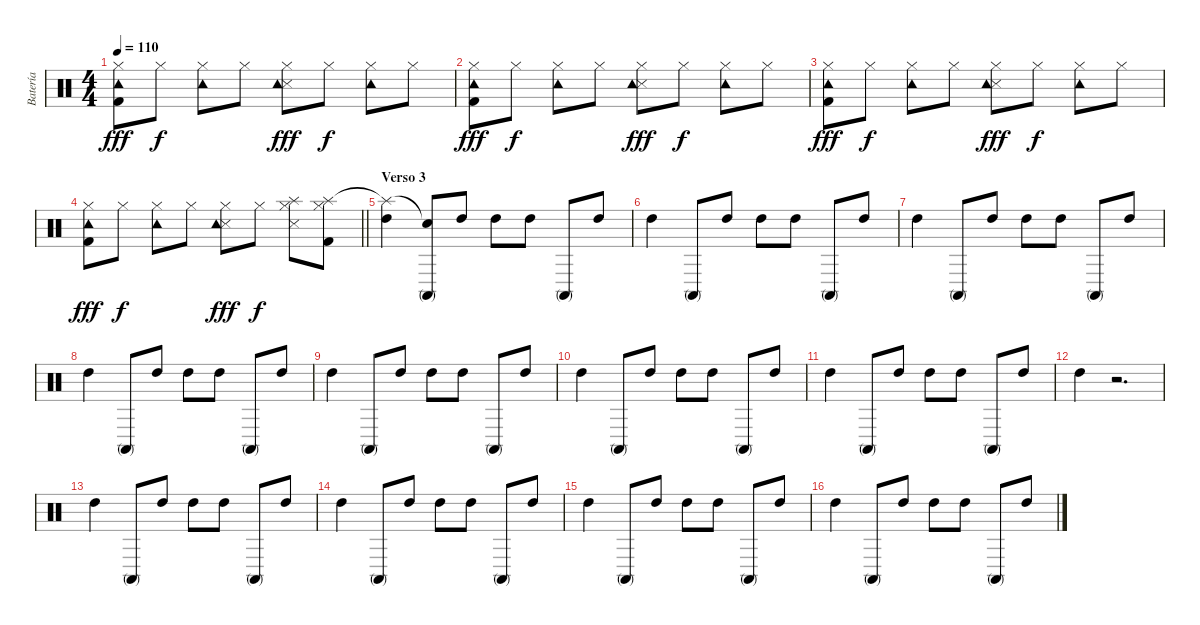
\track ("Batería" "Batería") {instrument percussion}
\staff {score}
\articulation defaults
\ts (4 4)
\tempo 110
\clef neutral
\ks c
("Hi-Hat (closed)" "Kick (hit) 2" "Tambourine (hit)").8{dy fff} "Hi-Hat (closed)".8{dy f} ("Hi-Hat (closed)" "Tambourine (hit)").8 "Hi-Hat (closed)".8 ("Hi-Hat (closed)" "Snare (side stick) 3" "Tambourine (hit)").8{dy fff} "Hi-Hat (closed)".8{dy f} ("Hi-Hat (closed)" "Tambourine (hit)").8 "Hi-Hat (closed)".8 |
("Hi-Hat (closed)" "Kick (hit) 2" "Tambourine (hit)").8{dy fff} "Hi-Hat (closed)".8{dy f} ("Hi-Hat (closed)" "Tambourine (hit)").8 "Hi-Hat (closed)".8 ("Hi-Hat (closed)" "Snare (side stick) 3" "Tambourine (hit)").8{dy fff} "Hi-Hat (closed)".8{dy f} ("Hi-Hat (closed)" "Tambourine (hit)").8 "Hi-Hat (closed)".8 |
("Hi-Hat (closed)" "Kick (hit) 2" "Tambourine (hit)").8{dy fff} "Hi-Hat (closed)".8{dy f} ("Hi-Hat (closed)" "Tambourine (hit)").8 "Hi-Hat (closed)".8 ("Hi-Hat (closed)" "Snare (side stick) 3" "Tambourine (hit)").8{dy fff} "Hi-Hat (closed)".8{dy f} ("Hi-Hat (closed)" "Tambourine (hit)").8 "Hi-Hat (closed)".8 |
\barLineRight lightlight
("Hi-Hat (closed)" "Kick (hit) 2" "Tambourine (hit)").8{dy fff} "Hi-Hat (closed)".8{dy f} ("Hi-Hat (closed)" "Tambourine (hit)").8 "Hi-Hat (closed)".8 ("Hi-Hat (closed)" "Snare (side stick) 3" "Tambourine (hit)").8{dy fff} "Hi-Hat (closed)".8{dy f} ("Hi-Hat (closed)" "Snare (side stick) 3" "Splash (hit)").8 ("Hi-Hat (closed)" "Splash (hit)" "Kick (hit) 2").8 |
\section ("" "Verso 3")
("High Tom (hit)" "Splash (hit)"{t}).4 ("Conga high (mute)" "Snare (hit)"{t}).8 "High Tom (hit)".8 "High Tom (hit)".8 "High Tom (hit)".8 "Conga high (mute)".8 "High Tom (hit)".8 |
"High Tom (hit)".4 "Conga high (mute)".8 "High Tom (hit)".8 "High Tom (hit)".8 "High Tom (hit)".8 "Conga high (mute)".8 "High Tom (hit)".8 |
"High Tom (hit)".4 "Conga high (mute)".8 "High Tom (hit)".8 "High Tom (hit)".8 "High Tom (hit)".8 "Conga high (mute)".8 "High Tom (hit)".8 |
"High Tom (hit)".4 "Conga high (mute)".8 "High Tom (hit)".8 "High Tom (hit)".8 "High Tom (hit)".8 "Conga high (mute)".8 "High Tom (hit)".8 |
"High Tom (hit)".4 "Conga high (mute)".8 "High Tom (hit)".8 "High Tom (hit)".8 "High Tom (hit)".8 "Conga high (mute)".8 "High Tom (hit)".8 |
"High Tom (hit)".4 "Conga high (mute)".8 "High Tom (hit)".8 "High Tom (hit)".8 "High Tom (hit)".8 "Conga high (mute)".8 "High Tom (hit)".8 |
"High Tom (hit)".4 "Conga high (mute)".8 "High Tom (hit)".8 "High Tom (hit)".8 "High Tom (hit)".8 "Conga high (mute)".8 "High Tom (hit)".8 |
"High Tom (hit)".4 r.2{d} |
"High Tom (hit)".4 "Conga high (mute)".8 "High Tom (hit)".8 "High Tom (hit)".8 "High Tom (hit)".8 "Conga high (mute)".8 "High Tom (hit)".8 |
"High Tom (hit)".4 "Conga high (mute)".8 "High Tom (hit)".8 "High Tom (hit)".8 "High Tom (hit)".8 "Conga high (mute)".8 "High Tom (hit)".8 |
"High Tom (hit)".4 "Conga high (mute)".8 "High Tom (hit)".8 "High Tom (hit)".8 "High Tom (hit)".8 "Conga high (mute)".8 "High Tom (hit)".8 |
"High Tom (hit)".4 "Conga high (mute)".8 "High Tom (hit)".8 "High Tom (hit)".8 "High Tom (hit)".8 "Conga high (mute)".8 "High Tom (hit)".8
